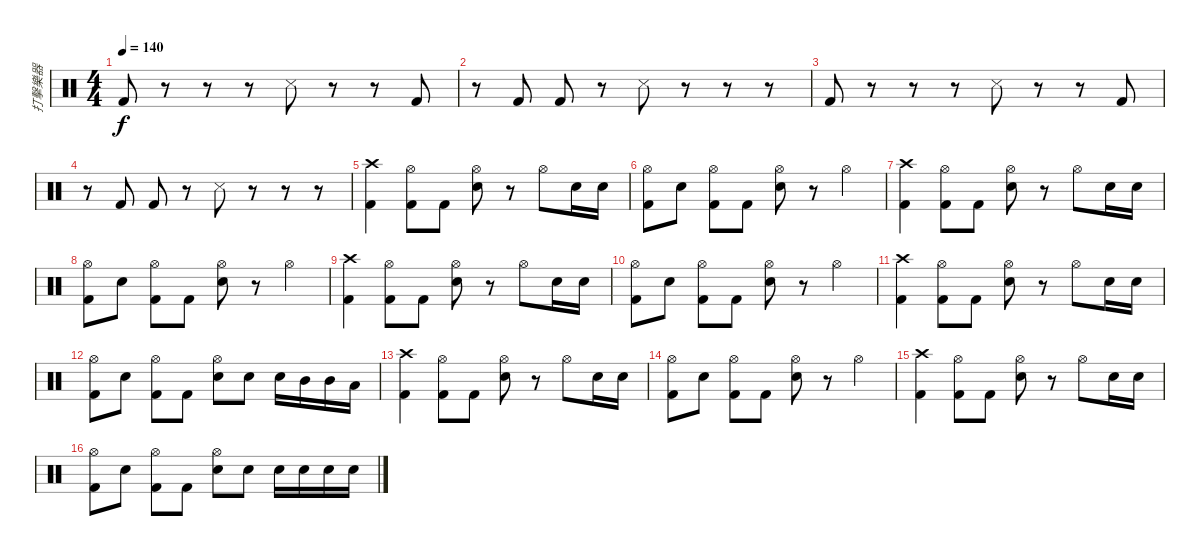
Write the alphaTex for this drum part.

\track ("打擊樂器" "打擊樂器") {instrument percussion}
\staff {score}
\articulation defaults
\ts (4 4)
\tempo 140
\clef neutral
\ks c "Kick (hit) 2".8{dy f}
r.8 r.8 r.8 "Snare (side stick) 3".8 r.8 r.8 "Kick (hit) 2".8 |
r.8 "Kick (hit) 2".8 "Kick (hit) 2".8 r.8 "Snare (side stick) 3".8 r.8 r.8 r.8 |
"Kick (hit) 2".8 r.8 r.8 r.8 "Snare (side stick) 3".8 r.8 r.8 "Kick (hit) 2".8 |
r.8 "Kick (hit) 2".8 "Kick (hit) 2".8 r.8 "Snare (side stick) 3".8 r.8 r.8 r.8 |
("Crash high (hit)" "Kick (hit) 2").4 ("Hi-Hat (open)" "Kick (hit) 2").8 "Kick (hit) 2".8 ("Hi-Hat (open)" "Electric Snare (hit)").8 r.8 "Hi-Hat (open)".8 "Electric Snare (hit)".16 "Electric Snare (hit)".16 |
("Hi-Hat (open)" "Kick (hit) 2").8 "Electric Snare (hit)".8 ("Hi-Hat (open)" "Kick (hit) 2").8 "Kick (hit) 2".8 ("Hi-Hat (open)" "Electric Snare (hit)").8 r.8 "Hi-Hat (open)".4 |
("Crash high (hit)" "Kick (hit) 2").4 ("Hi-Hat (open)" "Kick (hit) 2").8 "Kick (hit) 2".8 ("Hi-Hat (open)" "Electric Snare (hit)").8 r.8 "Hi-Hat (open)".8 "Electric Snare (hit)".16 "Electric Snare (hit)".16 |
("Hi-Hat (open)" "Kick (hit) 2").8 "Electric Snare (hit)".8 ("Hi-Hat (open)" "Kick (hit) 2").8 "Kick (hit) 2".8 ("Hi-Hat (open)" "Electric Snare (hit)").8 r.8 "Hi-Hat (open)".4 |
("Crash high (hit)" "Kick (hit) 2").4 ("Hi-Hat (open)" "Kick (hit) 2").8 "Kick (hit) 2".8 ("Hi-Hat (open)" "Electric Snare (hit)").8 r.8 "Hi-Hat (open)".8 "Electric Snare (hit)".16 "Electric Snare (hit)".16 |
("Hi-Hat (open)" "Kick (hit) 2").8 "Electric Snare (hit)".8 ("Hi-Hat (open)" "Kick (hit) 2").8 "Kick (hit) 2".8 ("Hi-Hat (open)" "Electric Snare (hit)").8 r.8 "Hi-Hat (open)".4 |
("Crash high (hit)" "Kick (hit) 2").4 ("Hi-Hat (open)" "Kick (hit) 2").8 "Kick (hit) 2".8 ("Hi-Hat (open)" "Electric Snare (hit)").8 r.8 "Hi-Hat (open)".8 "Electric Snare (hit)".16 "Electric Snare (hit)".16 |
("Hi-Hat (open)" "Kick (hit) 2").8 "Electric Snare (hit)".8 ("Hi-Hat (open)" "Kick (hit) 2").8 "Kick (hit) 2".8 ("Hi-Hat (open)" "Electric Snare (hit)").8 "Electric Snare (hit)".8 "Electric Snare (hit)".16 "Mid Tom (hit)".16 "Mid Tom (hit)".16 "Low Tom (hit)".16 |
("Crash high (hit)" "Kick (hit) 2").4 ("Hi-Hat (open)" "Kick (hit) 2").8 "Kick (hit) 2".8 ("Hi-Hat (open)" "Electric Snare (hit)").8 r.8 "Hi-Hat (open)".8 "Electric Snare (hit)".16 "Electric Snare (hit)".16 |
("Hi-Hat (open)" "Kick (hit) 2").8 "Electric Snare (hit)".8 ("Hi-Hat (open)" "Kick (hit) 2").8 "Kick (hit) 2".8 ("Hi-Hat (open)" "Electric Snare (hit)").8 r.8 "Hi-Hat (open)".4 |
("Crash high (hit)" "Kick (hit) 2").4 ("Hi-Hat (open)" "Kick (hit) 2").8 "Kick (hit) 2".8 ("Hi-Hat (open)" "Electric Snare (hit)").8 r.8 "Hi-Hat (open)".8 "Electric Snare (hit)".16 "Electric Snare (hit)".16 |
("Hi-Hat (open)" "Kick (hit) 2").8 "Electric Snare (hit)".8 ("Hi-Hat (open)" "Kick (hit) 2").8 "Kick (hit) 2".8 ("Hi-Hat (open)" "Electric Snare (hit)").8 "Electric Snare (hit)".8 "Electric Snare (hit)".16 "Electric Snare (hit)".16 "Electric Snare (hit)".16 "Electric Snare (hit)".16
